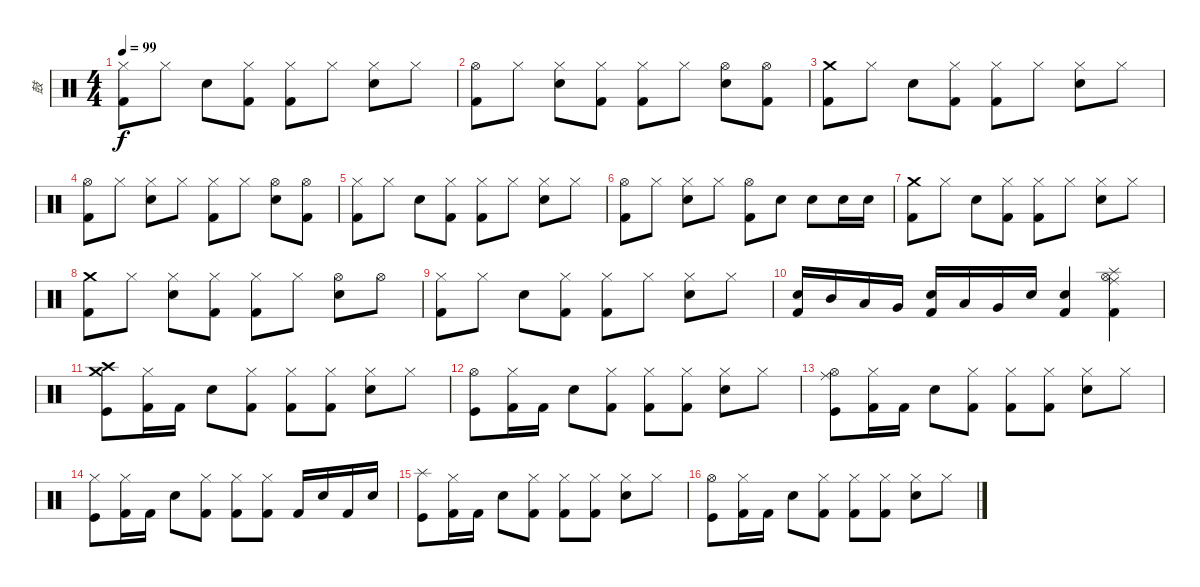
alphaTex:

\track ("鼓" "鼓") {instrument percussion}
\staff {score}
\articulation defaults
\ts (4 4)
\tempo 99
\clef neutral
\ks c
("Hi-Hat (closed)" "Kick (hit) 2").8{dy f} "Hi-Hat (closed)".8 "Electric Snare (hit)".8 ("Hi-Hat (closed)" "Kick (hit) 2").8 ("Hi-Hat (closed)" "Kick (hit) 2").8 "Hi-Hat (closed)".8 ("Hi-Hat (closed)" "Electric Snare (hit)").8 "Hi-Hat (closed)".8 |
("Hi-Hat (open)" "Kick (hit) 2").8 "Hi-Hat (closed)".8 ("Hi-Hat (closed)" "Electric Snare (hit)").8 ("Hi-Hat (closed)" "Kick (hit) 2").8 ("Hi-Hat (closed)" "Kick (hit) 2").8 "Hi-Hat (closed)".8 ("Hi-Hat (open)" "Electric Snare (hit)").8 ("Hi-Hat (open)" "Kick (hit) 2").8 |
("Crash medium (hit)" "Kick (hit) 2").8 "Hi-Hat (closed)".8 "Electric Snare (hit)".8 ("Hi-Hat (closed)" "Kick (hit) 2").8 ("Hi-Hat (closed)" "Kick (hit) 2").8 "Hi-Hat (closed)".8 ("Hi-Hat (closed)" "Electric Snare (hit)").8 "Hi-Hat (closed)".8 |
("Hi-Hat (open)" "Kick (hit) 2").8 "Hi-Hat (closed)".8 ("Hi-Hat (closed)" "Electric Snare (hit)").8 "Hi-Hat (closed)".8 ("Hi-Hat (closed)" "Kick (hit) 2").8 "Hi-Hat (closed)".8 ("Hi-Hat (open)" "Electric Snare (hit)").8 ("Hi-Hat (open)" "Kick (hit) 2").8 |
("Hi-Hat (closed)" "Kick (hit) 2").8 "Hi-Hat (closed)".8 "Electric Snare (hit)".8 ("Hi-Hat (closed)" "Kick (hit) 2").8 ("Hi-Hat (closed)" "Kick (hit) 2").8 "Hi-Hat (closed)".8 ("Hi-Hat (closed)" "Electric Snare (hit)").8 "Hi-Hat (closed)".8 |
("Hi-Hat (open)" "Kick (hit) 2").8 "Hi-Hat (closed)".8 ("Hi-Hat (closed)" "Electric Snare (hit)").8 "Hi-Hat (closed)".8 ("Hi-Hat (open)" "Kick (hit) 2").8 "Electric Snare (hit)".8 "Electric Snare (hit)".8 "Electric Snare (hit)".16 "Electric Snare (hit)".16 |
("Crash medium (hit)" "Kick (hit) 2").8 "Hi-Hat (closed)".8 "Electric Snare (hit)".8 ("Hi-Hat (closed)" "Kick (hit) 2").8 ("Hi-Hat (closed)" "Kick (hit) 2").8 "Hi-Hat (closed)".8 ("Hi-Hat (closed)" "Electric Snare (hit)").8 "Hi-Hat (closed)".8 |
("Crash medium (hit)" "Kick (hit) 2").8 "Hi-Hat (closed)".8 ("Hi-Hat (closed)" "Electric Snare (hit)").8 ("Hi-Hat (closed)" "Kick (hit) 2").8 ("Hi-Hat (closed)" "Kick (hit) 2").8 "Hi-Hat (closed)".8 ("Hi-Hat (open)" "Electric Snare (hit)").8 "Hi-Hat (open)".8 |
("Hi-Hat (closed)" "Kick (hit) 2").8 "Hi-Hat (closed)".8 "Electric Snare (hit)".8 ("Hi-Hat (closed)" "Kick (hit) 2").8 ("Hi-Hat (closed)" "Kick (hit) 2").8 "Hi-Hat (closed)".8 ("Hi-Hat (closed)" "Electric Snare (hit)").8 "Hi-Hat (closed)".8 |
("Electric Snare (hit)" "Kick (hit) 2").16 "Mid Tom (hit)".16 "Low Tom (hit)".16 "Very Low Tom (hit)".16 ("Electric Snare (hit)" "Kick (hit) 2").16 "Low Tom (hit)".16 "Very Low Tom (hit)".16 "Electric Snare (hit)".16 ("Electric Snare (hit)" "Kick (hit) 2").4 ("Splash (hit)" "Ride (middle)" "Hi-Hat (open)" "Kick (hit) 2").4 |
("Crash medium (hit)" "Crash high (hit)" "Kick (hit)").8 ("Hi-Hat (closed)" "Kick (hit) 2").16 "Kick (hit) 2".16 "Electric Snare (hit)".8 ("Hi-Hat (closed)" "Kick (hit) 2").8 ("Hi-Hat (closed)" "Kick (hit) 2").8 ("Hi-Hat (closed)" "Kick (hit) 2").8 ("Hi-Hat (closed)" "Electric Snare (hit)").8 "Hi-Hat (closed)".8 |
("Hi-Hat (open)" "Kick (hit)").8 ("Hi-Hat (closed)" "Kick (hit) 2").16 "Kick (hit) 2".16 "Electric Snare (hit)".8 ("Hi-Hat (closed)" "Kick (hit) 2").8 ("Hi-Hat (closed)" "Kick (hit) 2").8 ("Hi-Hat (closed)" "Kick (hit) 2").8 ("Hi-Hat (closed)" "Electric Snare (hit)").8 "Hi-Hat (closed)".8 |
("Ride (middle)" "Hi-Hat (open)" "Kick (hit)").8 ("Hi-Hat (closed)" "Kick (hit) 2").16 "Kick (hit) 2".16 "Electric Snare (hit)".8 ("Hi-Hat (closed)" "Kick (hit) 2").8 ("Hi-Hat (closed)" "Kick (hit) 2").8 ("Hi-Hat (closed)" "Kick (hit) 2").8 ("Hi-Hat (closed)" "Electric Snare (hit)").8 "Hi-Hat (closed)".8 |
("Hi-Hat (closed)" "Kick (hit)").8 ("Hi-Hat (closed)" "Kick (hit) 2").16 "Kick (hit) 2".16 "Electric Snare (hit)".8 ("Hi-Hat (closed)" "Kick (hit) 2").8 ("Hi-Hat (closed)" "Kick (hit) 2").8 ("Hi-Hat (closed)" "Kick (hit) 2").8 "Kick (hit) 2".16 "Electric Snare (hit)".16 "Kick (hit) 2".16 "Electric Snare (hit)".16 |
("Splash (hit)" "Kick (hit)").8 ("Hi-Hat (closed)" "Kick (hit) 2").16 "Kick (hit) 2".16 "Electric Snare (hit)".8 ("Hi-Hat (closed)" "Kick (hit) 2").8 ("Hi-Hat (closed)" "Kick (hit) 2").8 ("Hi-Hat (closed)" "Kick (hit) 2").8 ("Hi-Hat (closed)" "Electric Snare (hit)").8 "Hi-Hat (closed)".8 |
("Hi-Hat (open)" "Kick (hit)").8 ("Hi-Hat (closed)" "Kick (hit) 2").16 "Kick (hit) 2".16 "Electric Snare (hit)".8 ("Hi-Hat (closed)" "Kick (hit) 2").8 ("Hi-Hat (closed)" "Kick (hit) 2").8 ("Hi-Hat (closed)" "Kick (hit) 2").8 ("Hi-Hat (closed)" "Electric Snare (hit)").8 "Hi-Hat (closed)".8
